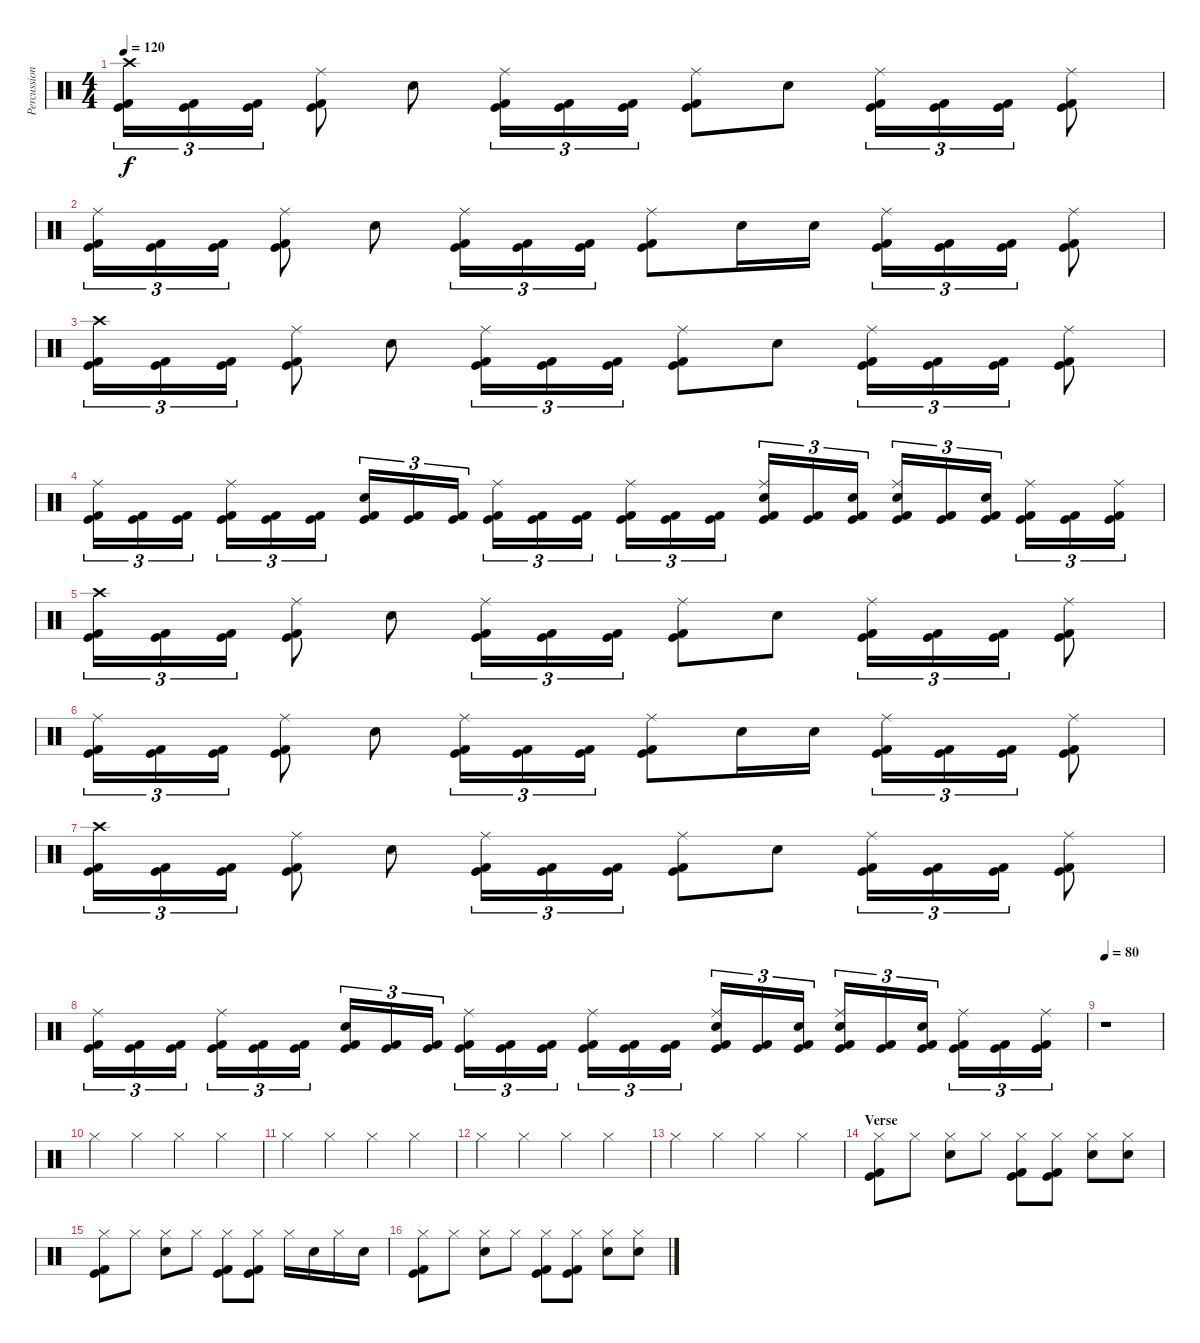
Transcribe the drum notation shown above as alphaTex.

\track ("Percussion" "Percussion") {instrument percussion}
\staff {score}
\articulation defaults
\ts (4 4)
\tempo 120
\clef neutral
\ks c
("Crash high (hit)" "Kick (hit) 2" "Kick (hit)").16{tu (3 2) dy f} ("Kick (hit) 2" "Kick (hit)").16{tu (3 2)} ("Kick (hit) 2" "Kick (hit)").16{tu (3 2)} ("Ride (middle)" "Kick (hit) 2" "Kick (hit)").8 "Snare (hit) 2".8 ("Ride (middle)" "Kick (hit) 2" "Kick (hit)").16{tu (3 2)} ("Kick (hit) 2" "Kick (hit)").16{tu (3 2)} ("Kick (hit) 2" "Kick (hit)").16{tu (3 2)} ("Ride (middle)" "Kick (hit) 2" "Kick (hit)").8 "Snare (hit) 2".8 ("Ride (middle)" "Kick (hit) 2" "Kick (hit)").16{tu (3 2)} ("Kick (hit) 2" "Kick (hit)").16{tu (3 2)} ("Kick (hit) 2" "Kick (hit)").16{tu (3 2)} ("Ride (middle)" "Kick (hit) 2" "Kick (hit)").8 |
("Ride (middle)" "Kick (hit) 2" "Kick (hit)").16{tu (3 2)} ("Kick (hit) 2" "Kick (hit)").16{tu (3 2)} ("Kick (hit) 2" "Kick (hit)").16{tu (3 2)} ("Ride (middle)" "Kick (hit) 2" "Kick (hit)").8 "Snare (hit) 2".8 ("Ride (middle)" "Kick (hit) 2" "Kick (hit)").16{tu (3 2)} ("Kick (hit) 2" "Kick (hit)").16{tu (3 2)} ("Kick (hit) 2" "Kick (hit)").16{tu (3 2)} ("Ride (middle)" "Kick (hit) 2" "Kick (hit)").8 "Snare (hit) 2".16 "Snare (hit) 2".16 ("Ride (middle)" "Kick (hit) 2" "Kick (hit)").16{tu (3 2)} ("Kick (hit) 2" "Kick (hit)").16{tu (3 2)} ("Kick (hit) 2" "Kick (hit)").16{tu (3 2)} ("Ride (middle)" "Kick (hit) 2" "Kick (hit)").8 |
("Crash high (hit)" "Kick (hit) 2" "Kick (hit)").16{tu (3 2)} ("Kick (hit) 2" "Kick (hit)").16{tu (3 2)} ("Kick (hit) 2" "Kick (hit)").16{tu (3 2)} ("Ride (middle)" "Kick (hit) 2" "Kick (hit)").8 "Snare (hit) 2".8 ("Ride (middle)" "Kick (hit) 2" "Kick (hit)").16{tu (3 2)} ("Kick (hit) 2" "Kick (hit)").16{tu (3 2)} ("Kick (hit) 2" "Kick (hit)").16{tu (3 2)} ("Ride (middle)" "Kick (hit) 2" "Kick (hit)").8 "Snare (hit) 2".8 ("Ride (middle)" "Kick (hit) 2" "Kick (hit)").16{tu (3 2)} ("Kick (hit) 2" "Kick (hit)").16{tu (3 2)} ("Kick (hit) 2" "Kick (hit)").16{tu (3 2)} ("Ride (middle)" "Kick (hit) 2" "Kick (hit)").8 |
("Ride (middle)" "Kick (hit) 2" "Kick (hit)").16{tu (3 2)} ("Kick (hit) 2" "Kick (hit)").16{tu (3 2)} ("Kick (hit) 2" "Kick (hit)").16{tu (3 2)} ("Ride (middle)" "Kick (hit) 2" "Kick (hit)").16{tu (3 2)} ("Kick (hit) 2" "Kick (hit)").16{tu (3 2)} ("Kick (hit) 2" "Kick (hit)").16{tu (3 2)} ("Snare (hit) 2" "Kick (hit) 2" "Kick (hit)").16{tu (3 2)} ("Kick (hit) 2" "Kick (hit)").16{tu (3 2)} ("Kick (hit) 2" "Kick (hit)").16{tu (3 2)} ("Ride (middle)" "Kick (hit) 2" "Kick (hit)").16{tu (3 2)} ("Kick (hit) 2" "Kick (hit)").16{tu (3 2)} ("Kick (hit) 2" "Kick (hit)").16{tu (3 2)} ("Ride (middle)" "Kick (hit) 2" "Kick (hit)").16{tu (3 2)} ("Kick (hit) 2" "Kick (hit)").16{tu (3 2)} ("Kick (hit) 2" "Kick (hit)").16{tu (3 2)} ("Ride (middle)" "Snare (hit) 2" "Kick (hit) 2" "Kick (hit)").16{tu (3 2)} ("Kick (hit) 2" "Kick (hit)").16{tu (3 2)} ("Snare (hit) 2" "Kick (hit) 2" "Kick (hit)").16{tu (3 2)} ("Ride (middle)" "Snare (hit) 2" "Kick (hit) 2" "Kick (hit)").16{tu (3 2)} ("Kick (hit) 2" "Kick (hit)").16{tu (3 2)} ("Snare (hit) 2" "Kick (hit) 2" "Kick (hit)").16{tu (3 2)} ("Ride (middle)" "Kick (hit) 2" "Kick (hit)").16{tu (3 2)} ("Kick (hit) 2" "Kick (hit)").16{tu (3 2)} ("Ride (middle)" "Kick (hit) 2" "Kick (hit)").16{tu (3 2)} |
("Crash high (hit)" "Kick (hit) 2" "Kick (hit)").16{tu (3 2)} ("Kick (hit) 2" "Kick (hit)").16{tu (3 2)} ("Kick (hit) 2" "Kick (hit)").16{tu (3 2)} ("Ride (middle)" "Kick (hit) 2" "Kick (hit)").8 "Snare (hit) 2".8 ("Ride (middle)" "Kick (hit) 2" "Kick (hit)").16{tu (3 2)} ("Kick (hit) 2" "Kick (hit)").16{tu (3 2)} ("Kick (hit) 2" "Kick (hit)").16{tu (3 2)} ("Ride (middle)" "Kick (hit) 2" "Kick (hit)").8 "Snare (hit) 2".8 ("Ride (middle)" "Kick (hit) 2" "Kick (hit)").16{tu (3 2)} ("Kick (hit) 2" "Kick (hit)").16{tu (3 2)} ("Kick (hit) 2" "Kick (hit)").16{tu (3 2)} ("Ride (middle)" "Kick (hit) 2" "Kick (hit)").8 |
("Ride (middle)" "Kick (hit) 2" "Kick (hit)").16{tu (3 2)} ("Kick (hit) 2" "Kick (hit)").16{tu (3 2)} ("Kick (hit) 2" "Kick (hit)").16{tu (3 2)} ("Ride (middle)" "Kick (hit) 2" "Kick (hit)").8 "Snare (hit) 2".8 ("Ride (middle)" "Kick (hit) 2" "Kick (hit)").16{tu (3 2)} ("Kick (hit) 2" "Kick (hit)").16{tu (3 2)} ("Kick (hit) 2" "Kick (hit)").16{tu (3 2)} ("Ride (middle)" "Kick (hit) 2" "Kick (hit)").8 "Snare (hit) 2".16 "Snare (hit) 2".16 ("Ride (middle)" "Kick (hit) 2" "Kick (hit)").16{tu (3 2)} ("Kick (hit) 2" "Kick (hit)").16{tu (3 2)} ("Kick (hit) 2" "Kick (hit)").16{tu (3 2)} ("Ride (middle)" "Kick (hit) 2" "Kick (hit)").8 |
("Crash high (hit)" "Kick (hit) 2" "Kick (hit)").16{tu (3 2)} ("Kick (hit) 2" "Kick (hit)").16{tu (3 2)} ("Kick (hit) 2" "Kick (hit)").16{tu (3 2)} ("Ride (middle)" "Kick (hit) 2" "Kick (hit)").8 "Snare (hit) 2".8 ("Ride (middle)" "Kick (hit) 2" "Kick (hit)").16{tu (3 2)} ("Kick (hit) 2" "Kick (hit)").16{tu (3 2)} ("Kick (hit) 2" "Kick (hit)").16{tu (3 2)} ("Ride (middle)" "Kick (hit) 2" "Kick (hit)").8 "Snare (hit) 2".8 ("Ride (middle)" "Kick (hit) 2" "Kick (hit)").16{tu (3 2)} ("Kick (hit) 2" "Kick (hit)").16{tu (3 2)} ("Kick (hit) 2" "Kick (hit)").16{tu (3 2)} ("Ride (middle)" "Kick (hit) 2" "Kick (hit)").8 |
("Ride (middle)" "Kick (hit) 2" "Kick (hit)").16{tu (3 2)} ("Kick (hit) 2" "Kick (hit)").16{tu (3 2)} ("Kick (hit) 2" "Kick (hit)").16{tu (3 2)} ("Ride (middle)" "Kick (hit) 2" "Kick (hit)").16{tu (3 2)} ("Kick (hit) 2" "Kick (hit)").16{tu (3 2)} ("Kick (hit) 2" "Kick (hit)").16{tu (3 2)} ("Snare (hit) 2" "Kick (hit) 2" "Kick (hit)").16{tu (3 2)} ("Kick (hit) 2" "Kick (hit)").16{tu (3 2)} ("Kick (hit) 2" "Kick (hit)").16{tu (3 2)} ("Ride (middle)" "Kick (hit) 2" "Kick (hit)").16{tu (3 2)} ("Kick (hit) 2" "Kick (hit)").16{tu (3 2)} ("Kick (hit) 2" "Kick (hit)").16{tu (3 2)} ("Ride (middle)" "Kick (hit) 2" "Kick (hit)").16{tu (3 2)} ("Kick (hit) 2" "Kick (hit)").16{tu (3 2)} ("Kick (hit) 2" "Kick (hit)").16{tu (3 2)} ("Ride (middle)" "Snare (hit) 2" "Kick (hit) 2" "Kick (hit)").16{tu (3 2)} ("Kick (hit) 2" "Kick (hit)").16{tu (3 2)} ("Snare (hit) 2" "Kick (hit) 2" "Kick (hit)").16{tu (3 2)} ("Ride (middle)" "Snare (hit) 2" "Kick (hit) 2" "Kick (hit)").16{tu (3 2)} ("Kick (hit) 2" "Kick (hit)").16{tu (3 2)} ("Snare (hit) 2" "Kick (hit) 2" "Kick (hit)").16{tu (3 2)} ("Ride (middle)" "Kick (hit) 2" "Kick (hit)").16{tu (3 2)} ("Kick (hit) 2" "Kick (hit)").16{tu (3 2)} ("Ride (middle)" "Kick (hit) 2" "Kick (hit)").16{tu (3 2)} |
\tempo 80
r.1 |
"Hi-Hat (closed)".4 "Hi-Hat (closed)".4 "Hi-Hat (closed)".4 "Hi-Hat (closed)".4 |
"Hi-Hat (closed)".4 "Hi-Hat (closed)".4 "Hi-Hat (closed)".4 "Hi-Hat (closed)".4 |
"Hi-Hat (closed)".4 "Hi-Hat (closed)".4 "Hi-Hat (closed)".4 "Hi-Hat (closed)".4 |
"Hi-Hat (closed)".4 "Hi-Hat (closed)".4 "Hi-Hat (closed)".4 "Hi-Hat (closed)".4 |
\section ("" "Verse")
("Hi-Hat (closed)" "Kick (hit) 2" "Kick (hit)").8 "Hi-Hat (closed)".8 ("Hi-Hat (closed)" "Snare (hit) 2").8 "Hi-Hat (closed)".8 ("Hi-Hat (closed)" "Kick (hit) 2" "Kick (hit)").8 ("Hi-Hat (closed)" "Kick (hit) 2" "Kick (hit)").8 ("Hi-Hat (closed)" "Snare (hit) 2").8 ("Hi-Hat (closed)" "Snare (hit) 2").8 |
("Hi-Hat (closed)" "Kick (hit) 2" "Kick (hit)").8 "Hi-Hat (closed)".8 ("Hi-Hat (closed)" "Snare (hit) 2").8 "Hi-Hat (closed)".8 ("Hi-Hat (closed)" "Kick (hit) 2" "Kick (hit)").8 ("Hi-Hat (closed)" "Kick (hit) 2" "Kick (hit)").8 "Hi-Hat (closed)".16 "Snare (hit) 2".16 "Hi-Hat (closed)".16 "Snare (hit) 2".16 |
("Hi-Hat (closed)" "Kick (hit) 2" "Kick (hit)").8 "Hi-Hat (closed)".8 ("Hi-Hat (closed)" "Snare (hit) 2").8 "Hi-Hat (closed)".8 ("Hi-Hat (closed)" "Kick (hit) 2" "Kick (hit)").8 ("Hi-Hat (closed)" "Kick (hit) 2" "Kick (hit)").8 ("Hi-Hat (closed)" "Snare (hit) 2").8 ("Hi-Hat (closed)" "Snare (hit) 2").8
